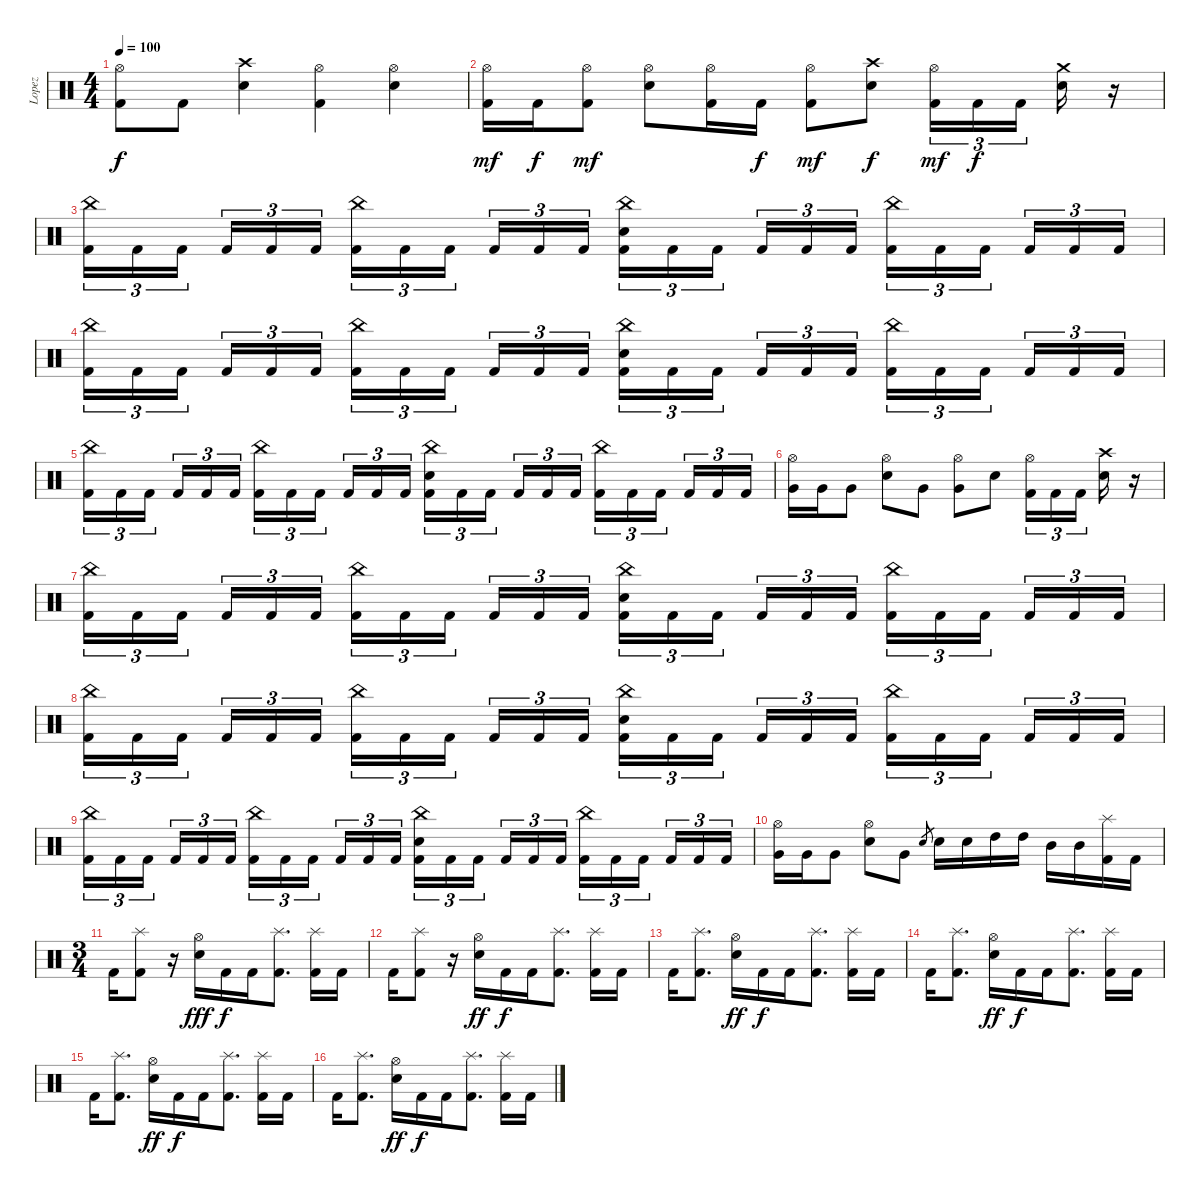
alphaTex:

\track ("Lopez" "Lopez") {instrument percussion}
\staff {score}
\articulation defaults
\ts (4 4)
\tempo 100
\clef neutral
\ks c
("Hi-Hat (open)" "Kick (hit) 2").8{dy f} "Kick (hit) 2".8 ("Crash high (hit)" "Snare (hit) 2").4 ("Hi-Hat (open)" "Kick (hit) 2").4 ("Hi-Hat (open)" "Snare (hit) 2").4 |
("Hi-Hat (open)" "Kick (hit) 2").16{dy mf} "Kick (hit) 2".16{dy f} ("Hi-Hat (open)" "Kick (hit) 2").8{dy mf} ("Hi-Hat (open)" "Snare (hit) 2").8 ("Hi-Hat (open)" "Kick (hit) 2").16 "Kick (hit) 2".16{dy f} ("Hi-Hat (open)" "Kick (hit) 2").8{dy mf} ("Crash high (hit)" "Snare (hit) 2").8{dy f} ("Hi-Hat (open)" "Kick (hit) 2").16{tu (3 2) dy mf} "Kick (hit) 2".16{tu (3 2) dy f} "Kick (hit) 2".16{tu (3 2)} ("Crash medium (hit)" "Snare (hit) 2").16 r.16 |
("China (hit)" "Kick (hit) 2").16{tu (3 2)} "Kick (hit) 2".16{tu (3 2)} "Kick (hit) 2".16{tu (3 2)} "Kick (hit) 2".16{tu (3 2)} "Kick (hit) 2".16{tu (3 2)} "Kick (hit) 2".16{tu (3 2)} ("China (hit)" "Kick (hit) 2").16{tu (3 2)} "Kick (hit) 2".16{tu (3 2)} "Kick (hit) 2".16{tu (3 2)} "Kick (hit) 2".16{tu (3 2)} "Kick (hit) 2".16{tu (3 2)} "Kick (hit) 2".16{tu (3 2)} ("China (hit)" "Snare (hit) 2" "Kick (hit) 2").16{tu (3 2)} "Kick (hit) 2".16{tu (3 2)} "Kick (hit) 2".16{tu (3 2)} "Kick (hit) 2".16{tu (3 2)} "Kick (hit) 2".16{tu (3 2)} "Kick (hit) 2".16{tu (3 2)} ("China (hit)" "Kick (hit) 2").16{tu (3 2)} "Kick (hit) 2".16{tu (3 2)} "Kick (hit) 2".16{tu (3 2)} "Kick (hit) 2".16{tu (3 2)} "Kick (hit) 2".16{tu (3 2)} "Kick (hit) 2".16{tu (3 2)} |
("China (hit)" "Kick (hit) 2").16{tu (3 2)} "Kick (hit) 2".16{tu (3 2)} "Kick (hit) 2".16{tu (3 2)} "Kick (hit) 2".16{tu (3 2)} "Kick (hit) 2".16{tu (3 2)} "Kick (hit) 2".16{tu (3 2)} ("China (hit)" "Kick (hit) 2").16{tu (3 2)} "Kick (hit) 2".16{tu (3 2)} "Kick (hit) 2".16{tu (3 2)} "Kick (hit) 2".16{tu (3 2)} "Kick (hit) 2".16{tu (3 2)} "Kick (hit) 2".16{tu (3 2)} ("China (hit)" "Snare (hit) 2" "Kick (hit) 2").16{tu (3 2)} "Kick (hit) 2".16{tu (3 2)} "Kick (hit) 2".16{tu (3 2)} "Kick (hit) 2".16{tu (3 2)} "Kick (hit) 2".16{tu (3 2)} "Kick (hit) 2".16{tu (3 2)} ("China (hit)" "Kick (hit) 2").16{tu (3 2)} "Kick (hit) 2".16{tu (3 2)} "Kick (hit) 2".16{tu (3 2)} "Kick (hit) 2".16{tu (3 2)} "Kick (hit) 2".16{tu (3 2)} "Kick (hit) 2".16{tu (3 2)} |
("China (hit)" "Kick (hit) 2").16{tu (3 2)} "Kick (hit) 2".16{tu (3 2)} "Kick (hit) 2".16{tu (3 2)} "Kick (hit) 2".16{tu (3 2)} "Kick (hit) 2".16{tu (3 2)} "Kick (hit) 2".16{tu (3 2)} ("China (hit)" "Kick (hit) 2").16{tu (3 2)} "Kick (hit) 2".16{tu (3 2)} "Kick (hit) 2".16{tu (3 2)} "Kick (hit) 2".16{tu (3 2)} "Kick (hit) 2".16{tu (3 2)} "Kick (hit) 2".16{tu (3 2)} ("China (hit)" "Snare (hit) 2" "Kick (hit) 2").16{tu (3 2)} "Kick (hit) 2".16{tu (3 2)} "Kick (hit) 2".16{tu (3 2)} "Kick (hit) 2".16{tu (3 2)} "Kick (hit) 2".16{tu (3 2)} "Kick (hit) 2".16{tu (3 2)} ("China (hit)" "Kick (hit) 2").16{tu (3 2)} "Kick (hit) 2".16{tu (3 2)} "Kick (hit) 2".16{tu (3 2)} "Kick (hit) 2".16{tu (3 2)} "Kick (hit) 2".16{tu (3 2)} "Kick (hit) 2".16{tu (3 2)} |
("Hi-Hat (open)" "Very Low Tom (hit)").16 "Very Low Tom (hit)".16 "Very Low Tom (hit)".8 ("Hi-Hat (open)" "Snare (hit) 2").8 "Very Low Tom (hit)".8 ("Hi-Hat (open)" "Very Low Tom (hit)").8 "Snare (hit) 2".8 ("Hi-Hat (open)" "Kick (hit) 2").16{tu (3 2)} "Kick (hit) 2".16{tu (3 2)} "Kick (hit) 2".16{tu (3 2)} ("Crash high (hit)" "Snare (hit) 2").16 r.16 |
("China (hit)" "Kick (hit) 2").16{tu (3 2)} "Kick (hit) 2".16{tu (3 2)} "Kick (hit) 2".16{tu (3 2)} "Kick (hit) 2".16{tu (3 2)} "Kick (hit) 2".16{tu (3 2)} "Kick (hit) 2".16{tu (3 2)} ("China (hit)" "Kick (hit) 2").16{tu (3 2)} "Kick (hit) 2".16{tu (3 2)} "Kick (hit) 2".16{tu (3 2)} "Kick (hit) 2".16{tu (3 2)} "Kick (hit) 2".16{tu (3 2)} "Kick (hit) 2".16{tu (3 2)} ("China (hit)" "Snare (hit) 2" "Kick (hit) 2").16{tu (3 2)} "Kick (hit) 2".16{tu (3 2)} "Kick (hit) 2".16{tu (3 2)} "Kick (hit) 2".16{tu (3 2)} "Kick (hit) 2".16{tu (3 2)} "Kick (hit) 2".16{tu (3 2)} ("China (hit)" "Kick (hit) 2").16{tu (3 2)} "Kick (hit) 2".16{tu (3 2)} "Kick (hit) 2".16{tu (3 2)} "Kick (hit) 2".16{tu (3 2)} "Kick (hit) 2".16{tu (3 2)} "Kick (hit) 2".16{tu (3 2)} |
("China (hit)" "Kick (hit) 2").16{tu (3 2)} "Kick (hit) 2".16{tu (3 2)} "Kick (hit) 2".16{tu (3 2)} "Kick (hit) 2".16{tu (3 2)} "Kick (hit) 2".16{tu (3 2)} "Kick (hit) 2".16{tu (3 2)} ("China (hit)" "Kick (hit) 2").16{tu (3 2)} "Kick (hit) 2".16{tu (3 2)} "Kick (hit) 2".16{tu (3 2)} "Kick (hit) 2".16{tu (3 2)} "Kick (hit) 2".16{tu (3 2)} "Kick (hit) 2".16{tu (3 2)} ("China (hit)" "Snare (hit) 2" "Kick (hit) 2").16{tu (3 2)} "Kick (hit) 2".16{tu (3 2)} "Kick (hit) 2".16{tu (3 2)} "Kick (hit) 2".16{tu (3 2)} "Kick (hit) 2".16{tu (3 2)} "Kick (hit) 2".16{tu (3 2)} ("China (hit)" "Kick (hit) 2").16{tu (3 2)} "Kick (hit) 2".16{tu (3 2)} "Kick (hit) 2".16{tu (3 2)} "Kick (hit) 2".16{tu (3 2)} "Kick (hit) 2".16{tu (3 2)} "Kick (hit) 2".16{tu (3 2)} |
("China (hit)" "Kick (hit) 2").16{tu (3 2)} "Kick (hit) 2".16{tu (3 2)} "Kick (hit) 2".16{tu (3 2)} "Kick (hit) 2".16{tu (3 2)} "Kick (hit) 2".16{tu (3 2)} "Kick (hit) 2".16{tu (3 2)} ("China (hit)" "Kick (hit) 2").16{tu (3 2)} "Kick (hit) 2".16{tu (3 2)} "Kick (hit) 2".16{tu (3 2)} "Kick (hit) 2".16{tu (3 2)} "Kick (hit) 2".16{tu (3 2)} "Kick (hit) 2".16{tu (3 2)} ("China (hit)" "Snare (hit) 2" "Kick (hit) 2").16{tu (3 2)} "Kick (hit) 2".16{tu (3 2)} "Kick (hit) 2".16{tu (3 2)} "Kick (hit) 2".16{tu (3 2)} "Kick (hit) 2".16{tu (3 2)} "Kick (hit) 2".16{tu (3 2)} ("China (hit)" "Kick (hit) 2").16{tu (3 2)} "Kick (hit) 2".16{tu (3 2)} "Kick (hit) 2".16{tu (3 2)} "Kick (hit) 2".16{tu (3 2)} "Kick (hit) 2".16{tu (3 2)} "Kick (hit) 2".16{tu (3 2)} |
("Hi-Hat (open)" "Very Low Tom (hit)").16 "Very Low Tom (hit)".16 "Very Low Tom (hit)".8 ("Hi-Hat (open)" "Snare (hit) 2").8 "Very Low Tom (hit)".8 "Snare (hit) 2".8{gr} "Snare (hit) 2".16 "Electric Snare (hit)".16 "High Tom (hit)".16 "High Tom (hit)".16 "Mid Tom (hit)".16 "Mid Tom (hit)".16 ("Splash (hit)" "Kick (hit) 2").16 "Kick (hit) 2".16 |
\ts (3 4)
"Kick (hit) 2".16 ("Splash (hit)" "Kick (hit) 2").8 r.16 ("Hi-Hat (open)" "Snare (hit) 2").16{dy fff} "Kick (hit) 2".16{dy f} "Kick (hit) 2".16 ("Splash (hit)" "Kick (hit) 2").8{d} ("Splash (hit)" "Kick (hit) 2").16 "Kick (hit) 2".16 |
"Kick (hit) 2".16 ("Splash (hit)" "Kick (hit) 2").8 r.16 ("Hi-Hat (open)" "Snare (hit) 2").16{dy ff} "Kick (hit) 2".16{dy f} "Kick (hit) 2".16 ("Splash (hit)" "Kick (hit) 2").8{d} ("Splash (hit)" "Kick (hit) 2").16 "Kick (hit) 2".16 |
"Kick (hit) 2".16 ("Splash (hit)" "Kick (hit) 2").8{d} ("Hi-Hat (open)" "Snare (hit) 2").16{dy ff} "Kick (hit) 2".16{dy f} "Kick (hit) 2".16 ("Splash (hit)" "Kick (hit) 2").8{d} ("Splash (hit)" "Kick (hit) 2").16 "Kick (hit) 2".16 |
"Kick (hit) 2".16 ("Splash (hit)" "Kick (hit) 2").8{d} ("Hi-Hat (open)" "Snare (hit) 2").16{dy ff} "Kick (hit) 2".16{dy f} "Kick (hit) 2".16 ("Splash (hit)" "Kick (hit) 2").8{d} ("Splash (hit)" "Kick (hit) 2").16 "Kick (hit) 2".16 |
"Kick (hit) 2".16 ("Splash (hit)" "Kick (hit) 2").8{d} ("Hi-Hat (open)" "Snare (hit) 2").16{dy ff} "Kick (hit) 2".16{dy f} "Kick (hit) 2".16 ("Splash (hit)" "Kick (hit) 2").8{d} ("Splash (hit)" "Kick (hit) 2").16 "Kick (hit) 2".16 |
"Kick (hit) 2".16 ("Splash (hit)" "Kick (hit) 2").8{d} ("Hi-Hat (open)" "Snare (hit) 2").16{dy ff} "Kick (hit) 2".16{dy f} "Kick (hit) 2".16 ("Splash (hit)" "Kick (hit) 2").8{d} ("Splash (hit)" "Kick (hit) 2").16 "Kick (hit) 2".16
